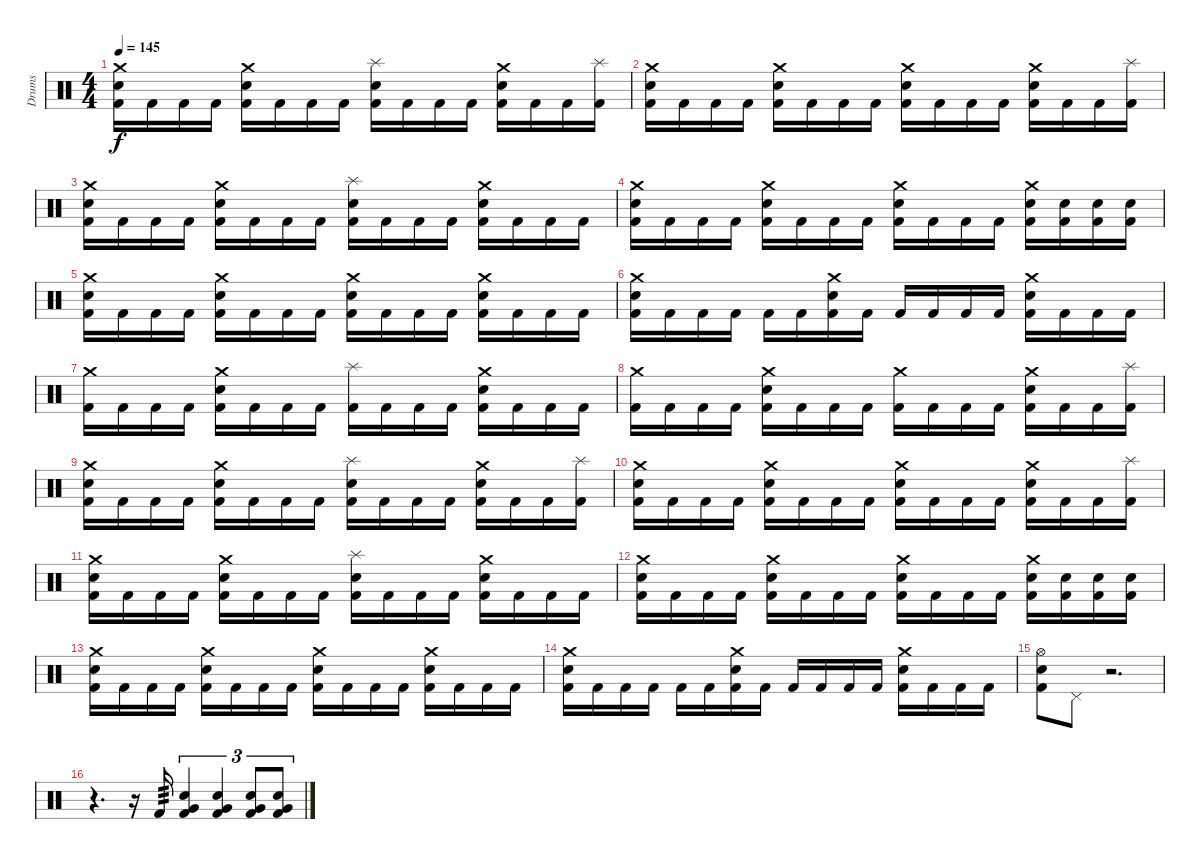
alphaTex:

\track ("Drums" "Drums") {instrument percussion}
\staff {score}
\articulation defaults
\ts (4 4)
\tempo 145
\clef neutral
\ks c
("Crash medium (hit)" "Electric Snare (hit)" "Kick (hit) 2").16{dy f} "Kick (hit) 2".16 "Kick (hit) 2".16 "Kick (hit) 2".16 ("Crash medium (hit)" "Electric Snare (hit)" "Kick (hit) 2").16 "Kick (hit) 2".16 "Kick (hit) 2".16 "Kick (hit) 2".16 ("Splash (hit)" "Electric Snare (hit)" "Kick (hit) 2").16 "Kick (hit) 2".16 "Kick (hit) 2".16 "Kick (hit) 2".16 ("Crash medium (hit)" "Electric Snare (hit)" "Kick (hit) 2").16 "Kick (hit) 2".16 "Kick (hit) 2".16 ("Splash (hit)" "Kick (hit) 2").16 |
("Crash medium (hit)" "Electric Snare (hit)" "Kick (hit) 2").16 "Kick (hit) 2".16 "Kick (hit) 2".16 "Kick (hit) 2".16 ("Crash medium (hit)" "Electric Snare (hit)" "Kick (hit) 2").16 "Kick (hit) 2".16 "Kick (hit) 2".16 "Kick (hit) 2".16 ("Crash medium (hit)" "Electric Snare (hit)" "Kick (hit) 2").16 "Kick (hit) 2".16 "Kick (hit) 2".16 "Kick (hit) 2".16 ("Crash medium (hit)" "Electric Snare (hit)" "Kick (hit) 2").16 "Kick (hit) 2".16 "Kick (hit) 2".16 ("Splash (hit)" "Kick (hit) 2").16 |
("Crash medium (hit)" "Electric Snare (hit)" "Kick (hit) 2").16 "Kick (hit) 2".16 "Kick (hit) 2".16 "Kick (hit) 2".16 ("Crash medium (hit)" "Electric Snare (hit)" "Kick (hit) 2").16 "Kick (hit) 2".16 "Kick (hit) 2".16 "Kick (hit) 2".16 ("Splash (hit)" "Electric Snare (hit)" "Kick (hit) 2").16 "Kick (hit) 2".16 "Kick (hit) 2".16 "Kick (hit) 2".16 ("Crash medium (hit)" "Electric Snare (hit)" "Kick (hit) 2").16 "Kick (hit) 2".16 "Kick (hit) 2".16 "Kick (hit) 2".16 |
("Crash medium (hit)" "Electric Snare (hit)" "Kick (hit) 2").16 "Kick (hit) 2".16 "Kick (hit) 2".16 "Kick (hit) 2".16 ("Crash medium (hit)" "Electric Snare (hit)" "Kick (hit) 2").16 "Kick (hit) 2".16 "Kick (hit) 2".16 "Kick (hit) 2".16 ("Crash medium (hit)" "Electric Snare (hit)" "Kick (hit) 2").16 "Kick (hit) 2".16 "Kick (hit) 2".16 "Kick (hit) 2".16 ("Crash medium (hit)" "Electric Snare (hit)" "Kick (hit) 2").16 ("Electric Snare (hit)" "Kick (hit) 2").16 ("Electric Snare (hit)" "Kick (hit) 2").16 ("Electric Snare (hit)" "Kick (hit) 2").16 |
("Crash medium (hit)" "Electric Snare (hit)" "Kick (hit) 2").16 "Kick (hit) 2".16 "Kick (hit) 2".16 "Kick (hit) 2".16 ("Crash medium (hit)" "Electric Snare (hit)" "Kick (hit) 2").16 "Kick (hit) 2".16 "Kick (hit) 2".16 "Kick (hit) 2".16 ("Crash medium (hit)" "Electric Snare (hit)" "Kick (hit) 2").16 "Kick (hit) 2".16 "Kick (hit) 2".16 "Kick (hit) 2".16 ("Crash medium (hit)" "Electric Snare (hit)" "Kick (hit) 2").16 "Kick (hit) 2".16 "Kick (hit) 2".16 "Kick (hit) 2".16 |
("Crash medium (hit)" "Electric Snare (hit)" "Kick (hit) 2").16 "Kick (hit) 2".16 "Kick (hit) 2".16 "Kick (hit) 2".16 "Kick (hit) 2".16 "Kick (hit) 2".16 ("Crash medium (hit)" "Electric Snare (hit)" "Kick (hit) 2").16 "Kick (hit) 2".16 "Kick (hit) 2".16 "Kick (hit) 2".16 "Kick (hit) 2".16 "Kick (hit) 2".16 ("Crash medium (hit)" "Electric Snare (hit)" "Kick (hit) 2").16 "Kick (hit) 2".16 "Kick (hit) 2".16 "Kick (hit) 2".16 |
("Crash medium (hit)" "Kick (hit) 2").16 "Kick (hit) 2".16 "Kick (hit) 2".16 "Kick (hit) 2".16 ("Crash medium (hit)" "Electric Snare (hit)" "Kick (hit) 2").16 "Kick (hit) 2".16 "Kick (hit) 2".16 "Kick (hit) 2".16 ("Splash (hit)" "Kick (hit) 2").16 "Kick (hit) 2".16 "Kick (hit) 2".16 "Kick (hit) 2".16 ("Crash medium (hit)" "Electric Snare (hit)" "Kick (hit) 2").16 "Kick (hit) 2".16 "Kick (hit) 2".16 "Kick (hit) 2".16 |
("Crash medium (hit)" "Kick (hit) 2").16 "Kick (hit) 2".16 "Kick (hit) 2".16 "Kick (hit) 2".16 ("Crash medium (hit)" "Electric Snare (hit)" "Kick (hit) 2").16 "Kick (hit) 2".16 "Kick (hit) 2".16 "Kick (hit) 2".16 ("Crash medium (hit)" "Kick (hit) 2").16 "Kick (hit) 2".16 "Kick (hit) 2".16 "Kick (hit) 2".16 ("Crash medium (hit)" "Electric Snare (hit)" "Kick (hit) 2").16 "Kick (hit) 2".16 "Kick (hit) 2".16 ("Splash (hit)" "Kick (hit) 2").16 |
("Crash medium (hit)" "Electric Snare (hit)" "Kick (hit) 2").16 "Kick (hit) 2".16 "Kick (hit) 2".16 "Kick (hit) 2".16 ("Crash medium (hit)" "Electric Snare (hit)" "Kick (hit) 2").16 "Kick (hit) 2".16 "Kick (hit) 2".16 "Kick (hit) 2".16 ("Splash (hit)" "Electric Snare (hit)" "Kick (hit) 2").16 "Kick (hit) 2".16 "Kick (hit) 2".16 "Kick (hit) 2".16 ("Crash medium (hit)" "Electric Snare (hit)" "Kick (hit) 2").16 "Kick (hit) 2".16 "Kick (hit) 2".16 ("Splash (hit)" "Kick (hit) 2").16 |
("Crash medium (hit)" "Electric Snare (hit)" "Kick (hit) 2").16 "Kick (hit) 2".16 "Kick (hit) 2".16 "Kick (hit) 2".16 ("Crash medium (hit)" "Electric Snare (hit)" "Kick (hit) 2").16 "Kick (hit) 2".16 "Kick (hit) 2".16 "Kick (hit) 2".16 ("Crash medium (hit)" "Electric Snare (hit)" "Kick (hit) 2").16 "Kick (hit) 2".16 "Kick (hit) 2".16 "Kick (hit) 2".16 ("Crash medium (hit)" "Electric Snare (hit)" "Kick (hit) 2").16 "Kick (hit) 2".16 "Kick (hit) 2".16 ("Splash (hit)" "Kick (hit) 2").16 |
("Crash medium (hit)" "Electric Snare (hit)" "Kick (hit) 2").16 "Kick (hit) 2".16 "Kick (hit) 2".16 "Kick (hit) 2".16 ("Crash medium (hit)" "Electric Snare (hit)" "Kick (hit) 2").16 "Kick (hit) 2".16 "Kick (hit) 2".16 "Kick (hit) 2".16 ("Splash (hit)" "Electric Snare (hit)" "Kick (hit) 2").16 "Kick (hit) 2".16 "Kick (hit) 2".16 "Kick (hit) 2".16 ("Crash medium (hit)" "Electric Snare (hit)" "Kick (hit) 2").16 "Kick (hit) 2".16 "Kick (hit) 2".16 "Kick (hit) 2".16 |
("Crash medium (hit)" "Electric Snare (hit)" "Kick (hit) 2").16 "Kick (hit) 2".16 "Kick (hit) 2".16 "Kick (hit) 2".16 ("Crash medium (hit)" "Electric Snare (hit)" "Kick (hit) 2").16 "Kick (hit) 2".16 "Kick (hit) 2".16 "Kick (hit) 2".16 ("Crash medium (hit)" "Electric Snare (hit)" "Kick (hit) 2").16 "Kick (hit) 2".16 "Kick (hit) 2".16 "Kick (hit) 2".16 ("Crash medium (hit)" "Electric Snare (hit)" "Kick (hit) 2").16 ("Electric Snare (hit)" "Kick (hit) 2").16 ("Electric Snare (hit)" "Kick (hit) 2").16 ("Electric Snare (hit)" "Kick (hit) 2").16 |
("Crash medium (hit)" "Electric Snare (hit)" "Kick (hit) 2").16 "Kick (hit) 2".16 "Kick (hit) 2".16 "Kick (hit) 2".16 ("Crash medium (hit)" "Electric Snare (hit)" "Kick (hit) 2").16 "Kick (hit) 2".16 "Kick (hit) 2".16 "Kick (hit) 2".16 ("Crash medium (hit)" "Electric Snare (hit)" "Kick (hit) 2").16 "Kick (hit) 2".16 "Kick (hit) 2".16 "Kick (hit) 2".16 ("Crash medium (hit)" "Electric Snare (hit)" "Kick (hit) 2").16 "Kick (hit) 2".16 "Kick (hit) 2".16 "Kick (hit) 2".16 |
("Crash medium (hit)" "Electric Snare (hit)" "Kick (hit) 2").16 "Kick (hit) 2".16 "Kick (hit) 2".16 "Kick (hit) 2".16 "Kick (hit) 2".16 "Kick (hit) 2".16 ("Crash medium (hit)" "Electric Snare (hit)" "Kick (hit) 2").16 "Kick (hit) 2".16 "Kick (hit) 2".16 "Kick (hit) 2".16 "Kick (hit) 2".16 "Kick (hit) 2".16 ("Crash medium (hit)" "Electric Snare (hit)" "Kick (hit) 2").16 "Kick (hit) 2".16 "Kick (hit) 2".16 "Kick (hit) 2".16 |
("Hi-Hat (open)" "Electric Snare (hit)" "Kick (hit) 2").8 "Pedal Hi-Hat (hit)".8 r.2{d} |
r.4{d} r.16 "Kick (hit) 2".16{tp 3} ("Electric Snare (hit)" "Very Low Tom (hit)" "Kick (hit) 2").4{tu (3 2)} ("Electric Snare (hit)" "Very Low Tom (hit)" "Kick (hit) 2").4{tu (3 2)} ("Electric Snare (hit)" "Very Low Tom (hit)" "Kick (hit) 2").8{tu (3 2)} ("Electric Snare (hit)" "Very Low Tom (hit)" "Kick (hit) 2").8{tu (3 2)}
